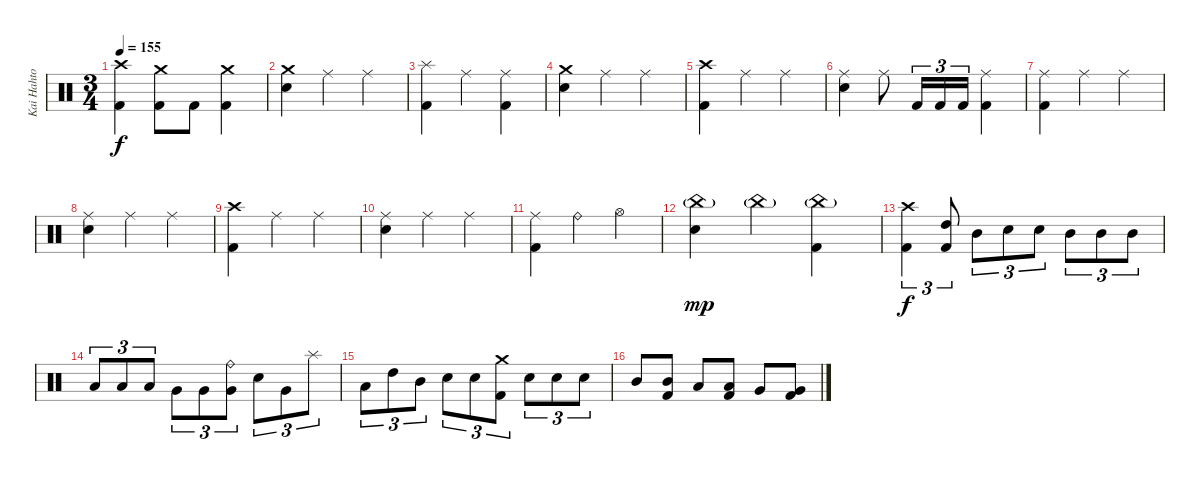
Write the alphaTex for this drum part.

\track ("Kai Hahto" "Kai Hahto") {instrument percussion}
\staff {score}
\articulation defaults
\ts (3 4)
\tempo 155
\clef neutral
\ks c
("Crash high (hit)" "Kick (hit) 2").4{dy f} ("Crash medium (hit)" "Kick (hit) 2").8 "Kick (hit) 2".8 ("Crash medium (hit)" "Kick (hit) 2").4 |
("Crash medium (hit)" "Electric Snare (hit)").4 "Ride (middle)".4 "Ride (middle)".4 |
("Splash (hit)" "Kick (hit) 2").4 "Ride (middle)".4 ("Ride (middle)" "Kick (hit) 2").4 |
("Crash medium (hit)" "Electric Snare (hit)").4 "Ride (middle)".4 "Ride (middle)".4 |
("Crash high (hit)" "Kick (hit) 2").4 "Ride (middle)".4 "Ride (middle)".4 |
("Ride (middle)" "Electric Snare (hit)").4 "Ride (middle)".8 "Kick (hit) 2".16{tu (3 2)} "Kick (hit) 2".16{tu (3 2)} "Kick (hit) 2".16{tu (3 2)} ("Ride (middle)" "Kick (hit) 2").4 |
("Ride (middle)" "Kick (hit) 2").4 "Ride (middle)".4 "Ride (middle)".4 |
("Ride (middle)" "Electric Snare (hit)").4 "Ride (middle)".4 "Ride (middle)".4 |
("Crash high (hit)" "Kick (hit) 2").4 "Ride (middle)".4 "Ride (middle)".4 |
("Ride (middle)" "Electric Snare (hit)").4 "Ride (middle)".4 "Ride (middle)".4 |
("Ride (middle)" "Kick (hit) 2").4 "Ride (bell)".4 "Hi-Hat (open)".4 |
("China (hit)"{g} "Electric Snare (hit)").4{dy mp} "China (hit)"{g}.4 ("China (hit)"{g} "Kick (hit) 2").4 |
("Crash high (hit)" "Kick (hit) 2").4{tu (3 2) dy f} ("High Tom (hit)" "Kick (hit) 2").8{tu (3 2)} "Mid Tom (hit)".8{tu (3 2)} "Electric Snare (hit)".8{tu (3 2)} "Electric Snare (hit)".8{tu (3 2)} "Mid Tom (hit)".8{tu (3 2)} "Mid Tom (hit)".8{tu (3 2)} "Mid Tom (hit)".8{tu (3 2)} |
"Low Tom (hit)".8{tu (3 2)} "Low Tom (hit)".8{tu (3 2)} "Low Tom (hit)".8{tu (3 2)} "Very Low Tom (hit)".8{tu (3 2)} "Very Low Tom (hit)".8{tu (3 2)} ("Ride (bell)" "Very Low Tom (hit)").8{tu (3 2)} "Electric Snare (hit)".8{tu (3 2)} "Very Low Tom (hit)".8{tu (3 2)} "Splash (hit)".8{tu (3 2)} |
"Low Floor Tom (hit)".8{tu (3 2)} "High Tom (hit)".8{tu (3 2)} "Mid Tom (hit)".8{tu (3 2)} "Electric Snare (hit)".8{tu (3 2)} "Electric Snare (hit)".8{tu (3 2)} ("Crash medium (hit)" "Kick (hit) 2").8{tu (3 2)} "Electric Snare (hit)".8{tu (3 2)} "Electric Snare (hit)".8{tu (3 2)} "Electric Snare (hit)".8{tu (3 2)} |
"Mid Tom (hit)".8 ("Mid Tom (hit)" "Kick (hit) 2").8 "Low Tom (hit)".8 ("Low Tom (hit)" "Kick (hit) 2").8 "Very Low Tom (hit)".8 ("Very Low Tom (hit)" "Kick (hit) 2").8
